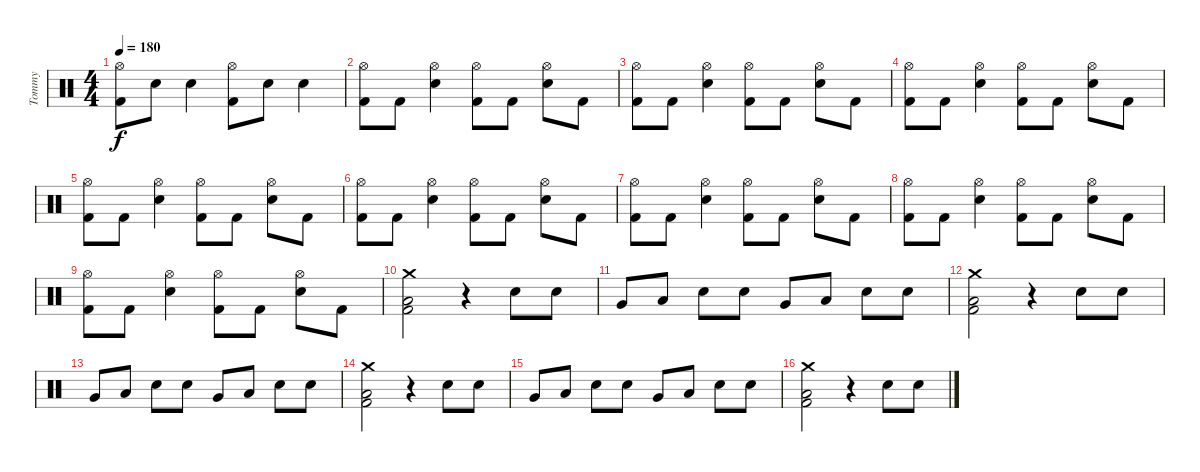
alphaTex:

\track ("Tommy" "Tommy") {instrument percussion}
\staff {score}
\articulation defaults
\ts (4 4)
\tempo 180
\clef neutral
\ks c
("Kick (hit) 2" "Hi-Hat (open)").8{dy f} "Snare (hit) 2".8 "Snare (hit) 2".4 ("Kick (hit) 2" "Hi-Hat (open)").8 "Snare (hit) 2".8 "Snare (hit) 2".4 |
("Kick (hit) 2" "Hi-Hat (open)").8 "Kick (hit) 2".8 ("Snare (hit) 2" "Hi-Hat (open)").4 ("Kick (hit) 2" "Hi-Hat (open)").8 "Kick (hit) 2".8 ("Snare (hit) 2" "Hi-Hat (open)").8 "Kick (hit) 2".8 |
("Kick (hit) 2" "Hi-Hat (open)").8 "Kick (hit) 2".8 ("Snare (hit) 2" "Hi-Hat (open)").4 ("Kick (hit) 2" "Hi-Hat (open)").8 "Kick (hit) 2".8 ("Snare (hit) 2" "Hi-Hat (open)").8 "Kick (hit) 2".8 |
("Kick (hit) 2" "Hi-Hat (open)").8 "Kick (hit) 2".8 ("Snare (hit) 2" "Hi-Hat (open)").4 ("Kick (hit) 2" "Hi-Hat (open)").8 "Kick (hit) 2".8 ("Snare (hit) 2" "Hi-Hat (open)").8 "Kick (hit) 2".8 |
("Kick (hit) 2" "Hi-Hat (open)").8 "Kick (hit) 2".8 ("Snare (hit) 2" "Hi-Hat (open)").4 ("Kick (hit) 2" "Hi-Hat (open)").8 "Kick (hit) 2".8 ("Snare (hit) 2" "Hi-Hat (open)").8 "Kick (hit) 2".8 |
("Kick (hit) 2" "Hi-Hat (open)").8 "Kick (hit) 2".8 ("Snare (hit) 2" "Hi-Hat (open)").4 ("Kick (hit) 2" "Hi-Hat (open)").8 "Kick (hit) 2".8 ("Snare (hit) 2" "Hi-Hat (open)").8 "Kick (hit) 2".8 |
("Kick (hit) 2" "Hi-Hat (open)").8 "Kick (hit) 2".8 ("Snare (hit) 2" "Hi-Hat (open)").4 ("Kick (hit) 2" "Hi-Hat (open)").8 "Kick (hit) 2".8 ("Snare (hit) 2" "Hi-Hat (open)").8 "Kick (hit) 2".8 |
("Kick (hit) 2" "Hi-Hat (open)").8 "Kick (hit) 2".8 ("Snare (hit) 2" "Hi-Hat (open)").4 ("Kick (hit) 2" "Hi-Hat (open)").8 "Kick (hit) 2".8 ("Snare (hit) 2" "Hi-Hat (open)").8 "Kick (hit) 2".8 |
("Kick (hit) 2" "Hi-Hat (open)").8 "Kick (hit) 2".8 ("Snare (hit) 2" "Hi-Hat (open)").4 ("Kick (hit) 2" "Hi-Hat (open)").8 "Kick (hit) 2".8 ("Snare (hit) 2" "Hi-Hat (open)").8 "Kick (hit) 2".8 |
("Kick (hit) 2" "Low Floor Tom (hit)" "Crash medium (hit)").2 r.4 "Snare (hit) 2".8 "Snare (hit) 2".8 |
"Very Low Tom (hit)".8 "Low Tom (hit)".8 "Snare (hit) 2".8 "Snare (hit) 2".8 "Very Low Tom (hit)".8 "Low Tom (hit)".8 "Snare (hit) 2".8 "Snare (hit) 2".8 |
("Kick (hit) 2" "Low Floor Tom (hit)" "Crash medium (hit)").2 r.4 "Snare (hit) 2".8 "Snare (hit) 2".8 |
"Very Low Tom (hit)".8 "Low Tom (hit)".8 "Snare (hit) 2".8 "Snare (hit) 2".8 "Very Low Tom (hit)".8 "Low Tom (hit)".8 "Snare (hit) 2".8 "Snare (hit) 2".8 |
("Kick (hit) 2" "Low Floor Tom (hit)" "Crash medium (hit)").2 r.4 "Snare (hit) 2".8 "Snare (hit) 2".8 |
"Very Low Tom (hit)".8 "Low Tom (hit)".8 "Snare (hit) 2".8 "Snare (hit) 2".8 "Very Low Tom (hit)".8 "Low Tom (hit)".8 "Snare (hit) 2".8 "Snare (hit) 2".8 |
("Kick (hit) 2" "Low Floor Tom (hit)" "Crash medium (hit)").2 r.4 "Snare (hit) 2".8 "Snare (hit) 2".8
